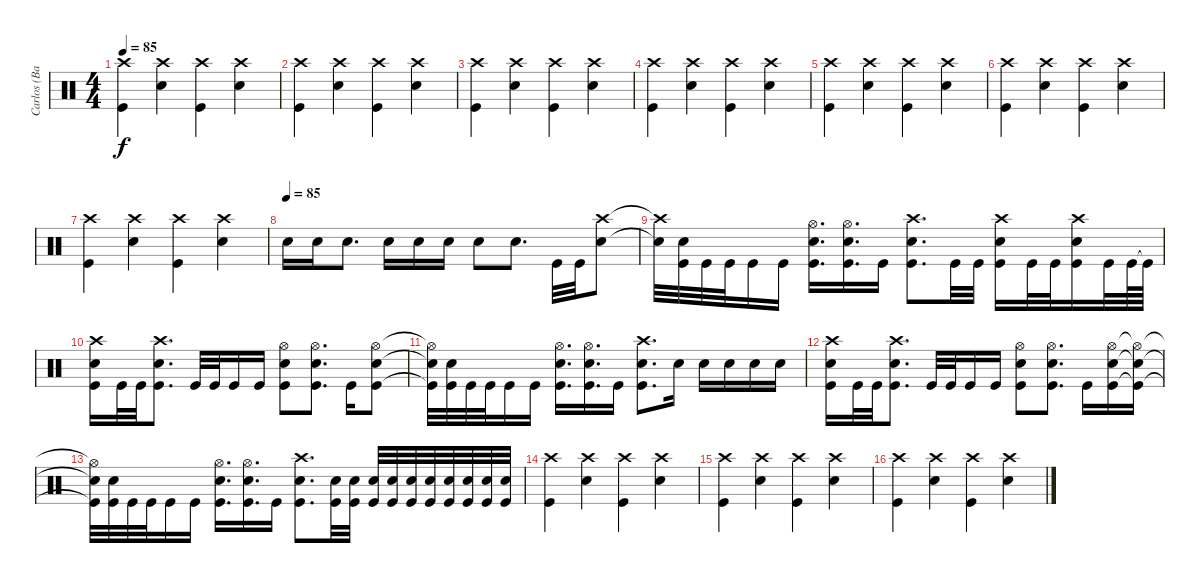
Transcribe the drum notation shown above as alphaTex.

\track ("Carlos (Batería)" "Carlos (Ba") {instrument percussion}
\staff {score}
\articulation defaults
\ts (4 4)
\tempo 85
\clef neutral
\ks c
("Crash high (hit)" "Kick (hit)").4{dy f} ("Crash high (hit)" "Snare (hit) 2").4 ("Crash high (hit)" "Kick (hit)").4 ("Crash high (hit)" "Snare (hit) 2").4 |
("Crash high (hit)" "Kick (hit)").4 ("Crash high (hit)" "Snare (hit) 2").4 ("Crash high (hit)" "Kick (hit)").4 ("Crash high (hit)" "Snare (hit) 2").4 |
("Crash high (hit)" "Kick (hit)").4 ("Crash high (hit)" "Snare (hit) 2").4 ("Crash high (hit)" "Kick (hit)").4 ("Crash high (hit)" "Snare (hit) 2").4 |
("Crash high (hit)" "Kick (hit)").4 ("Crash high (hit)" "Snare (hit) 2").4 ("Crash high (hit)" "Kick (hit)").4 ("Crash high (hit)" "Snare (hit) 2").4 |
("Crash high (hit)" "Kick (hit)").4 ("Crash high (hit)" "Snare (hit) 2").4 ("Crash high (hit)" "Kick (hit)").4 ("Crash high (hit)" "Snare (hit) 2").4 |
("Crash high (hit)" "Kick (hit)").4 ("Crash high (hit)" "Snare (hit) 2").4 ("Crash high (hit)" "Kick (hit)").4 ("Crash high (hit)" "Snare (hit) 2").4 |
("Crash high (hit)" "Kick (hit)").4 ("Crash high (hit)" "Snare (hit) 2").4 ("Crash high (hit)" "Kick (hit)").4 ("Crash high (hit)" "Snare (hit) 2").4 |
\tempo (85)
"Snare (hit) 2".16 "Snare (hit) 2".16 "Snare (hit) 2".8{d} "Snare (hit) 2".16 "Snare (hit) 2".16 "Snare (hit) 2".16 "Snare (hit) 2".8 "Snare (hit) 2".8{d} "Kick (hit)".32 "Kick (hit)".32 ("Crash high (hit)" "Snare (hit) 2").8 |
("Crash high (hit)"{t} "Snare (hit) 2"{t}).32 ("Snare (hit) 2" "Kick (hit)").32 "Kick (hit)".32 "Kick (hit)".32 "Kick (hit)".16 "Kick (hit)".16 ("Kick (hit)" "Snare (hit) 2" "Hi-Hat (open)").16{d} ("Kick (hit)" "Snare (hit) 2" "Hi-Hat (open)").16{d} "Kick (hit)".16 ("Kick (hit)" "Snare (hit) 2" "Crash high (hit)").8{d} "Kick (hit)".32 "Kick (hit)".32 ("Kick (hit)" "Snare (hit) 2" "Crash high (hit)").16 "Kick (hit)".32 "Kick (hit)".32 ("Kick (hit)" "Snare (hit) 2" "Crash high (hit)").16 "Kick (hit)".32 "Kick (hit)".64 "Kick (hit)"{t}.64 |
("Kick (hit)" "Snare (hit) 2" "Crash high (hit)").16 "Kick (hit)".32 "Kick (hit)".32 ("Kick (hit)" "Snare (hit) 2" "Crash high (hit)").8{d} "Kick (hit)".32 "Kick (hit)".32 "Kick (hit)".16 "Kick (hit)".16 ("Kick (hit)" "Snare (hit) 2" "Hi-Hat (open)").8 ("Kick (hit)" "Snare (hit) 2" "Hi-Hat (open)").8{d} "Kick (hit)".16 ("Kick (hit)" "Snare (hit) 2" "Hi-Hat (open)").8 |
("Kick (hit)"{t} "Snare (hit) 2"{t} "Hi-Hat (open)"{t}).32 ("Snare (hit) 2" "Kick (hit)").32 "Kick (hit)".32 "Kick (hit)".32 "Kick (hit)".16 "Kick (hit)".16 ("Kick (hit)" "Snare (hit) 2" "Hi-Hat (open)").16{d} ("Kick (hit)" "Snare (hit) 2" "Hi-Hat (open)").16{d} "Kick (hit)".16 ("Kick (hit)" "Snare (hit) 2" "Crash high (hit)").8{d} "Snare (hit) 2".16 "Snare (hit) 2".16 "Snare (hit) 2".16 "Snare (hit) 2".16 "Snare (hit) 2".16 |
("Kick (hit)" "Snare (hit) 2" "Crash high (hit)").16 "Kick (hit)".32 "Kick (hit)".32 ("Kick (hit)" "Snare (hit) 2" "Crash high (hit)").8{d} "Kick (hit)".32 "Kick (hit)".32 "Kick (hit)".16 "Kick (hit)".16 ("Kick (hit)" "Snare (hit) 2" "Hi-Hat (open)").8 ("Kick (hit)" "Snare (hit) 2" "Hi-Hat (open)").8{d} "Kick (hit)".16 ("Kick (hit)" "Snare (hit) 2" "Hi-Hat (open)").16 ("Kick (hit)"{t} "Snare (hit) 2"{t} "Hi-Hat (open)"{t}).16 |
("Kick (hit)"{t} "Snare (hit) 2"{t} "Hi-Hat (open)"{t}).32 ("Snare (hit) 2" "Kick (hit)").32 "Kick (hit)".32 "Kick (hit)".32 "Kick (hit)".16 "Kick (hit)".16 ("Kick (hit)" "Snare (hit) 2" "Hi-Hat (open)").16{d} ("Kick (hit)" "Snare (hit) 2" "Hi-Hat (open)").16{d} "Kick (hit)".16 ("Kick (hit)" "Snare (hit) 2" "Crash high (hit)").8{d} ("Snare (hit) 2" "Kick (hit)").32 ("Snare (hit) 2" "Kick (hit)").32 ("Snare (hit) 2" "Kick (hit)").32 ("Snare (hit) 2" "Kick (hit)").32 ("Snare (hit) 2" "Kick (hit)").32 ("Snare (hit) 2" "Kick (hit)").32 ("Snare (hit) 2" "Kick (hit)").32 ("Snare (hit) 2" "Kick (hit)").32 ("Snare (hit) 2" "Kick (hit)").32 ("Snare (hit) 2" "Kick (hit)").32 |
("Crash high (hit)" "Kick (hit)").4 ("Crash high (hit)" "Snare (hit) 2").4 ("Crash high (hit)" "Kick (hit)").4 ("Crash high (hit)" "Snare (hit) 2").4 |
("Crash high (hit)" "Kick (hit)").4 ("Crash high (hit)" "Snare (hit) 2").4 ("Crash high (hit)" "Kick (hit)").4 ("Crash high (hit)" "Snare (hit) 2").4 |
("Crash high (hit)" "Kick (hit)").4 ("Crash high (hit)" "Snare (hit) 2").4 ("Crash high (hit)" "Kick (hit)").4 ("Crash high (hit)" "Snare (hit) 2").4
